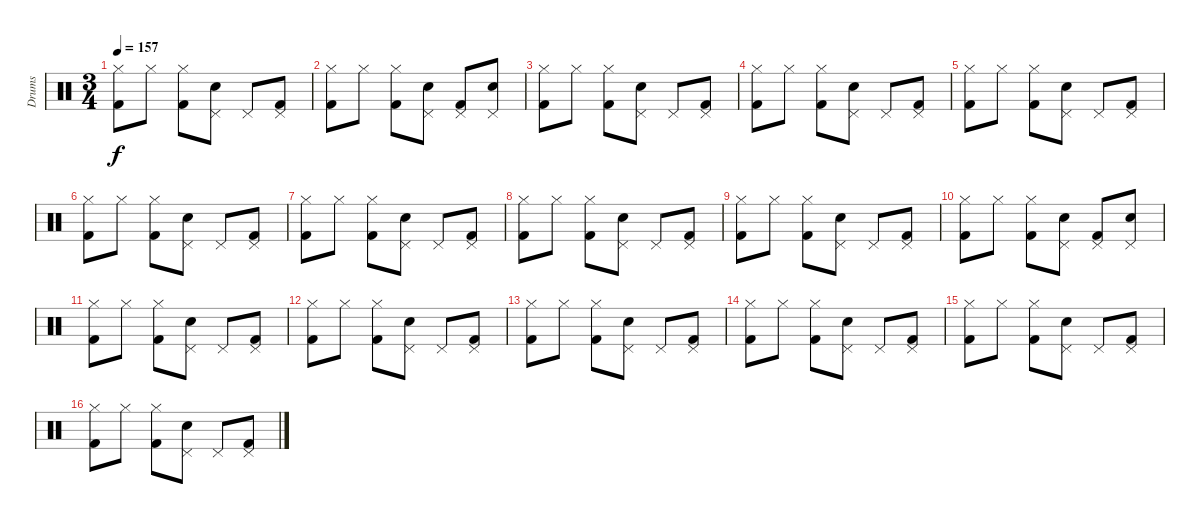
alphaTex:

\track ("Drums" "Drums") {instrument percussion}
\staff {score}
\articulation defaults
\ts (3 4)
\tempo 157
\clef neutral
\ks c
("Hi-Hat (closed)" "Kick (hit) 2").8{dy f} "Hi-Hat (closed)".8 ("Hi-Hat (closed)" "Kick (hit) 2").8 ("Pedal Hi-Hat (hit)" "Electric Snare (hit)").8 "Pedal Hi-Hat (hit)".8 ("Pedal Hi-Hat (hit)" "Kick (hit) 2").8 |
("Hi-Hat (closed)" "Kick (hit) 2").8 "Hi-Hat (closed)".8 ("Hi-Hat (closed)" "Kick (hit) 2").8 ("Pedal Hi-Hat (hit)" "Electric Snare (hit)").8 ("Pedal Hi-Hat (hit)" "Kick (hit) 2").8 ("Pedal Hi-Hat (hit)" "Electric Snare (hit)").8 |
("Hi-Hat (closed)" "Kick (hit) 2").8 "Hi-Hat (closed)".8 ("Hi-Hat (closed)" "Kick (hit) 2").8 ("Pedal Hi-Hat (hit)" "Electric Snare (hit)").8 "Pedal Hi-Hat (hit)".8 ("Pedal Hi-Hat (hit)" "Kick (hit) 2").8 |
("Hi-Hat (closed)" "Kick (hit) 2").8 "Hi-Hat (closed)".8 ("Hi-Hat (closed)" "Kick (hit) 2").8 ("Pedal Hi-Hat (hit)" "Electric Snare (hit)").8 "Pedal Hi-Hat (hit)".8 ("Pedal Hi-Hat (hit)" "Kick (hit) 2").8 |
("Hi-Hat (closed)" "Kick (hit) 2").8 "Hi-Hat (closed)".8 ("Hi-Hat (closed)" "Kick (hit) 2").8 ("Pedal Hi-Hat (hit)" "Electric Snare (hit)").8 "Pedal Hi-Hat (hit)".8 ("Pedal Hi-Hat (hit)" "Kick (hit) 2").8 |
("Hi-Hat (closed)" "Kick (hit) 2").8 "Hi-Hat (closed)".8 ("Hi-Hat (closed)" "Kick (hit) 2").8 ("Pedal Hi-Hat (hit)" "Electric Snare (hit)").8 "Pedal Hi-Hat (hit)".8 ("Pedal Hi-Hat (hit)" "Kick (hit) 2").8 |
("Hi-Hat (closed)" "Kick (hit) 2").8 "Hi-Hat (closed)".8 ("Hi-Hat (closed)" "Kick (hit) 2").8 ("Pedal Hi-Hat (hit)" "Electric Snare (hit)").8 "Pedal Hi-Hat (hit)".8 ("Pedal Hi-Hat (hit)" "Kick (hit) 2").8 |
("Hi-Hat (closed)" "Kick (hit) 2").8 "Hi-Hat (closed)".8 ("Hi-Hat (closed)" "Kick (hit) 2").8 ("Pedal Hi-Hat (hit)" "Electric Snare (hit)").8 "Pedal Hi-Hat (hit)".8 ("Pedal Hi-Hat (hit)" "Kick (hit) 2").8 |
("Hi-Hat (closed)" "Kick (hit) 2").8 "Hi-Hat (closed)".8 ("Hi-Hat (closed)" "Kick (hit) 2").8 ("Pedal Hi-Hat (hit)" "Electric Snare (hit)").8 "Pedal Hi-Hat (hit)".8 ("Pedal Hi-Hat (hit)" "Kick (hit) 2").8 |
("Hi-Hat (closed)" "Kick (hit) 2").8 "Hi-Hat (closed)".8 ("Hi-Hat (closed)" "Kick (hit) 2").8 ("Pedal Hi-Hat (hit)" "Electric Snare (hit)").8 ("Pedal Hi-Hat (hit)" "Kick (hit) 2").8 ("Pedal Hi-Hat (hit)" "Electric Snare (hit)").8 |
("Hi-Hat (closed)" "Kick (hit) 2").8 "Hi-Hat (closed)".8 ("Hi-Hat (closed)" "Kick (hit) 2").8 ("Pedal Hi-Hat (hit)" "Electric Snare (hit)").8 "Pedal Hi-Hat (hit)".8 ("Pedal Hi-Hat (hit)" "Kick (hit) 2").8 |
("Hi-Hat (closed)" "Kick (hit) 2").8 "Hi-Hat (closed)".8 ("Hi-Hat (closed)" "Kick (hit) 2").8 ("Pedal Hi-Hat (hit)" "Electric Snare (hit)").8 "Pedal Hi-Hat (hit)".8 ("Pedal Hi-Hat (hit)" "Kick (hit) 2").8 |
("Hi-Hat (closed)" "Kick (hit) 2").8 "Hi-Hat (closed)".8 ("Hi-Hat (closed)" "Kick (hit) 2").8 ("Pedal Hi-Hat (hit)" "Electric Snare (hit)").8 "Pedal Hi-Hat (hit)".8 ("Pedal Hi-Hat (hit)" "Kick (hit) 2").8 |
("Hi-Hat (closed)" "Kick (hit) 2").8 "Hi-Hat (closed)".8 ("Hi-Hat (closed)" "Kick (hit) 2").8 ("Pedal Hi-Hat (hit)" "Electric Snare (hit)").8 "Pedal Hi-Hat (hit)".8 ("Pedal Hi-Hat (hit)" "Kick (hit) 2").8 |
("Hi-Hat (closed)" "Kick (hit) 2").8 "Hi-Hat (closed)".8 ("Hi-Hat (closed)" "Kick (hit) 2").8 ("Pedal Hi-Hat (hit)" "Electric Snare (hit)").8 "Pedal Hi-Hat (hit)".8 ("Pedal Hi-Hat (hit)" "Kick (hit) 2").8 |
("Hi-Hat (closed)" "Kick (hit) 2").8 "Hi-Hat (closed)".8 ("Hi-Hat (closed)" "Kick (hit) 2").8 ("Pedal Hi-Hat (hit)" "Electric Snare (hit)").8 "Pedal Hi-Hat (hit)".8 ("Pedal Hi-Hat (hit)" "Kick (hit) 2").8
